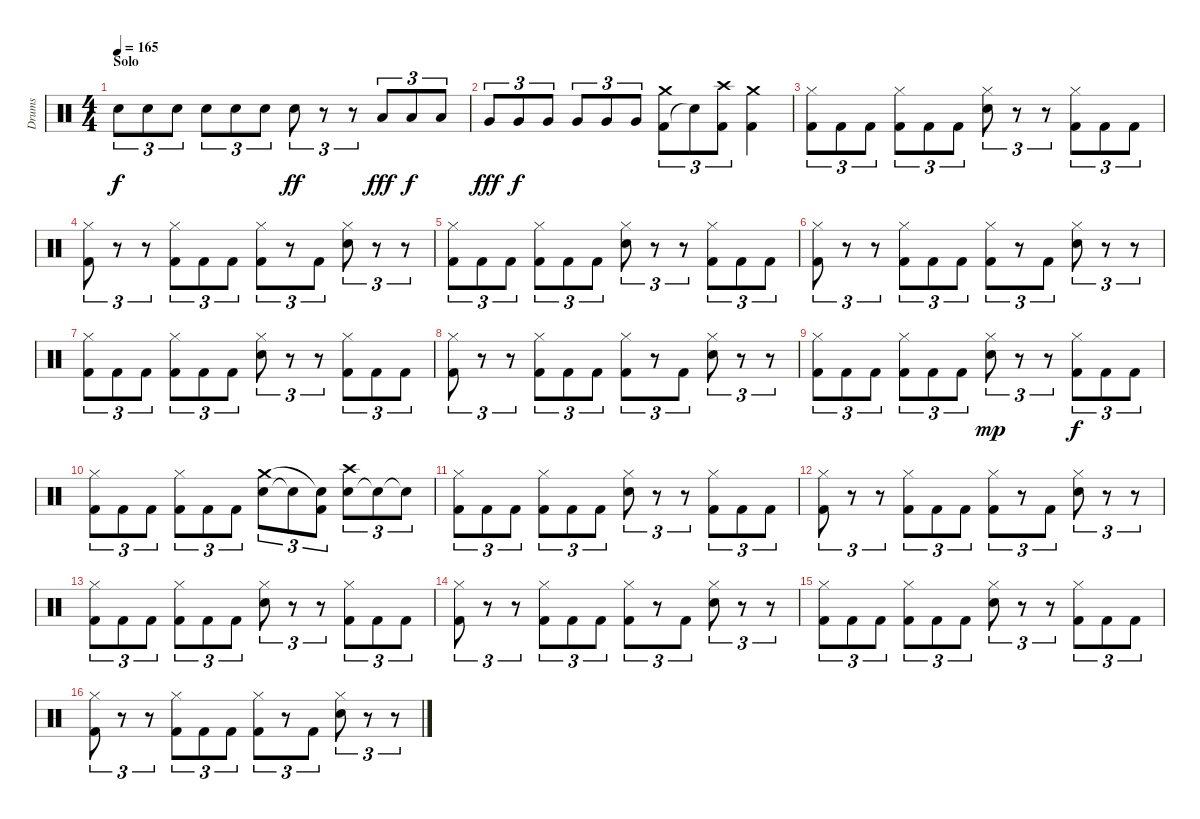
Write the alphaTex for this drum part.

\track ("Drums" "Drums") {instrument percussion}
\staff {score}
\articulation defaults
\ts (4 4)
\section ("" "Solo")
\tempo 165
\clef neutral
\ks c "Snare (hit) 2".8{tu (3 2) dy f} "Snare (hit) 2".8{tu (3 2)} "Snare (hit) 2".8{tu (3 2)} "Snare (hit) 2".8{tu (3 2)} "Snare (hit) 2".8{tu (3 2)} "Snare (hit) 2".8{tu (3 2)} "Snare (hit) 2".8{tu (3 2) dy ff}
r.8{tu (3 2)} r.8{tu (3 2)} "Low Tom (hit)".8{tu (3 2) dy fff} "Low Tom (hit)".8{tu (3 2) dy f} "Low Tom (hit)".8{tu (3 2)} |
"Very Low Tom (hit)".8{tu (3 2) dy fff} "Very Low Tom (hit)".8{tu (3 2) dy f} "Very Low Tom (hit)".8{tu (3 2)} "Very Low Tom (hit)".8{tu (3 2)} "Very Low Tom (hit)".8{tu (3 2)} "Very Low Tom (hit)".8{tu (3 2)} ("Kick (hit) 2" "Crash medium (hit)").8{tu (3 2)} "Snare (hit)"{t}.8{tu (3 2)} ("Kick (hit) 2" "Crash high (hit)").8{tu (3 2)} ("Kick (hit) 2" "Crash medium (hit)").4 |
("Kick (hit) 2" "Hi-Hat (closed)").8{tu (3 2)} "Kick (hit) 2".8{tu (3 2)} "Kick (hit) 2".8{tu (3 2)} ("Kick (hit) 2" "Hi-Hat (closed)").8{tu (3 2)} "Kick (hit) 2".8{tu (3 2)} "Kick (hit) 2".8{tu (3 2)} ("Snare (hit) 2" "Hi-Hat (closed)").8{tu (3 2)} r.8{tu (3 2)} r.8{tu (3 2)} ("Kick (hit) 2" "Hi-Hat (closed)").8{tu (3 2)} "Kick (hit) 2".8{tu (3 2)} "Kick (hit) 2".8{tu (3 2)} |
("Kick (hit) 2" "Hi-Hat (closed)").8{tu (3 2)} r.8{tu (3 2)} r.8{tu (3 2)} ("Kick (hit) 2" "Hi-Hat (closed)").8{tu (3 2)} "Kick (hit) 2".8{tu (3 2)} "Kick (hit) 2".8{tu (3 2)} ("Kick (hit) 2" "Hi-Hat (closed)").8{tu (3 2)} r.8{tu (3 2)} "Kick (hit) 2".8{tu (3 2)} ("Snare (hit) 2" "Hi-Hat (closed)").8{tu (3 2)} r.8{tu (3 2)} r.8{tu (3 2)} |
("Kick (hit) 2" "Hi-Hat (closed)").8{tu (3 2)} "Kick (hit) 2".8{tu (3 2)} "Kick (hit) 2".8{tu (3 2)} ("Kick (hit) 2" "Hi-Hat (closed)").8{tu (3 2)} "Kick (hit) 2".8{tu (3 2)} "Kick (hit) 2".8{tu (3 2)} ("Snare (hit) 2" "Hi-Hat (closed)").8{tu (3 2)} r.8{tu (3 2)} r.8{tu (3 2)} ("Kick (hit) 2" "Hi-Hat (closed)").8{tu (3 2)} "Kick (hit) 2".8{tu (3 2)} "Kick (hit) 2".8{tu (3 2)} |
("Kick (hit) 2" "Hi-Hat (closed)").8{tu (3 2)} r.8{tu (3 2)} r.8{tu (3 2)} ("Kick (hit) 2" "Hi-Hat (closed)").8{tu (3 2)} "Kick (hit) 2".8{tu (3 2)} "Kick (hit) 2".8{tu (3 2)} ("Kick (hit) 2" "Hi-Hat (closed)").8{tu (3 2)} r.8{tu (3 2)} "Kick (hit) 2".8{tu (3 2)} ("Snare (hit) 2" "Hi-Hat (closed)").8{tu (3 2)} r.8{tu (3 2)} r.8{tu (3 2)} |
("Kick (hit) 2" "Hi-Hat (closed)").8{tu (3 2)} "Kick (hit) 2".8{tu (3 2)} "Kick (hit) 2".8{tu (3 2)} ("Kick (hit) 2" "Hi-Hat (closed)").8{tu (3 2)} "Kick (hit) 2".8{tu (3 2)} "Kick (hit) 2".8{tu (3 2)} ("Snare (hit) 2" "Hi-Hat (closed)").8{tu (3 2)} r.8{tu (3 2)} r.8{tu (3 2)} ("Kick (hit) 2" "Hi-Hat (closed)").8{tu (3 2)} "Kick (hit) 2".8{tu (3 2)} "Kick (hit) 2".8{tu (3 2)} |
("Kick (hit) 2" "Hi-Hat (closed)").8{tu (3 2)} r.8{tu (3 2)} r.8{tu (3 2)} ("Kick (hit) 2" "Hi-Hat (closed)").8{tu (3 2)} "Kick (hit) 2".8{tu (3 2)} "Kick (hit) 2".8{tu (3 2)} ("Kick (hit) 2" "Hi-Hat (closed)").8{tu (3 2)} r.8{tu (3 2)} "Kick (hit) 2".8{tu (3 2)} ("Snare (hit) 2" "Hi-Hat (closed)").8{tu (3 2)} r.8{tu (3 2)} r.8{tu (3 2)} |
("Kick (hit) 2" "Hi-Hat (closed)").8{tu (3 2)} "Kick (hit) 2".8{tu (3 2)} "Kick (hit) 2".8{tu (3 2)} ("Kick (hit) 2" "Hi-Hat (closed)").8{tu (3 2)} "Kick (hit) 2".8{tu (3 2)} "Kick (hit) 2".8{tu (3 2)} ("Snare (hit) 2" "Hi-Hat (closed)").8{tu (3 2) dy mp} r.8{tu (3 2)} r.8{tu (3 2)} ("Kick (hit) 2" "Hi-Hat (closed)").8{tu (3 2) dy f} "Kick (hit) 2".8{tu (3 2)} "Kick (hit) 2".8{tu (3 2)} |
("Kick (hit) 2" "Hi-Hat (closed)").8{tu (3 2)} "Kick (hit) 2".8{tu (3 2)} "Kick (hit) 2".8{tu (3 2)} ("Kick (hit) 2" "Hi-Hat (closed)").8{tu (3 2)} "Kick (hit) 2".8{tu (3 2)} "Kick (hit) 2".8{tu (3 2)} ("Snare (hit) 2" "Crash medium (hit)").8{tu (3 2)} "Snare (hit)"{t}.8{tu (3 2)} ("Kick (hit) 2" "Snare (hit)"{t}).8{tu (3 2)} ("Snare (hit) 2" "Crash high (hit)").8{tu (3 2)} "Snare (hit)"{t}.8{tu (3 2)} "Snare (hit)"{t}.8{tu (3 2)} |
("Kick (hit) 2" "Hi-Hat (closed)").8{tu (3 2)} "Kick (hit) 2".8{tu (3 2)} "Kick (hit) 2".8{tu (3 2)} ("Kick (hit) 2" "Hi-Hat (closed)").8{tu (3 2)} "Kick (hit) 2".8{tu (3 2)} "Kick (hit) 2".8{tu (3 2)} ("Snare (hit) 2" "Hi-Hat (closed)").8{tu (3 2)} r.8{tu (3 2)} r.8{tu (3 2)} ("Kick (hit) 2" "Hi-Hat (closed)").8{tu (3 2)} "Kick (hit) 2".8{tu (3 2)} "Kick (hit) 2".8{tu (3 2)} |
("Kick (hit) 2" "Hi-Hat (closed)").8{tu (3 2)} r.8{tu (3 2)} r.8{tu (3 2)} ("Kick (hit) 2" "Hi-Hat (closed)").8{tu (3 2)} "Kick (hit) 2".8{tu (3 2)} "Kick (hit) 2".8{tu (3 2)} ("Kick (hit) 2" "Hi-Hat (closed)").8{tu (3 2)} r.8{tu (3 2)} "Kick (hit) 2".8{tu (3 2)} ("Snare (hit) 2" "Hi-Hat (closed)").8{tu (3 2)} r.8{tu (3 2)} r.8{tu (3 2)} |
("Kick (hit) 2" "Hi-Hat (closed)").8{tu (3 2)} "Kick (hit) 2".8{tu (3 2)} "Kick (hit) 2".8{tu (3 2)} ("Kick (hit) 2" "Hi-Hat (closed)").8{tu (3 2)} "Kick (hit) 2".8{tu (3 2)} "Kick (hit) 2".8{tu (3 2)} ("Snare (hit) 2" "Hi-Hat (closed)").8{tu (3 2)} r.8{tu (3 2)} r.8{tu (3 2)} ("Kick (hit) 2" "Hi-Hat (closed)").8{tu (3 2)} "Kick (hit) 2".8{tu (3 2)} "Kick (hit) 2".8{tu (3 2)} |
("Kick (hit) 2" "Hi-Hat (closed)").8{tu (3 2)} r.8{tu (3 2)} r.8{tu (3 2)} ("Kick (hit) 2" "Hi-Hat (closed)").8{tu (3 2)} "Kick (hit) 2".8{tu (3 2)} "Kick (hit) 2".8{tu (3 2)} ("Kick (hit) 2" "Hi-Hat (closed)").8{tu (3 2)} r.8{tu (3 2)} "Kick (hit) 2".8{tu (3 2)} ("Snare (hit) 2" "Hi-Hat (closed)").8{tu (3 2)} r.8{tu (3 2)} r.8{tu (3 2)} |
("Kick (hit) 2" "Hi-Hat (closed)").8{tu (3 2)} "Kick (hit) 2".8{tu (3 2)} "Kick (hit) 2".8{tu (3 2)} ("Kick (hit) 2" "Hi-Hat (closed)").8{tu (3 2)} "Kick (hit) 2".8{tu (3 2)} "Kick (hit) 2".8{tu (3 2)} ("Snare (hit) 2" "Hi-Hat (closed)").8{tu (3 2)} r.8{tu (3 2)} r.8{tu (3 2)} ("Kick (hit) 2" "Hi-Hat (closed)").8{tu (3 2)} "Kick (hit) 2".8{tu (3 2)} "Kick (hit) 2".8{tu (3 2)} |
("Kick (hit) 2" "Hi-Hat (closed)").8{tu (3 2)} r.8{tu (3 2)} r.8{tu (3 2)} ("Kick (hit) 2" "Hi-Hat (closed)").8{tu (3 2)} "Kick (hit) 2".8{tu (3 2)} "Kick (hit) 2".8{tu (3 2)} ("Kick (hit) 2" "Hi-Hat (closed)").8{tu (3 2)} r.8{tu (3 2)} "Kick (hit) 2".8{tu (3 2)} ("Snare (hit) 2" "Hi-Hat (closed)").8{tu (3 2)} r.8{tu (3 2)} r.8{tu (3 2)}
